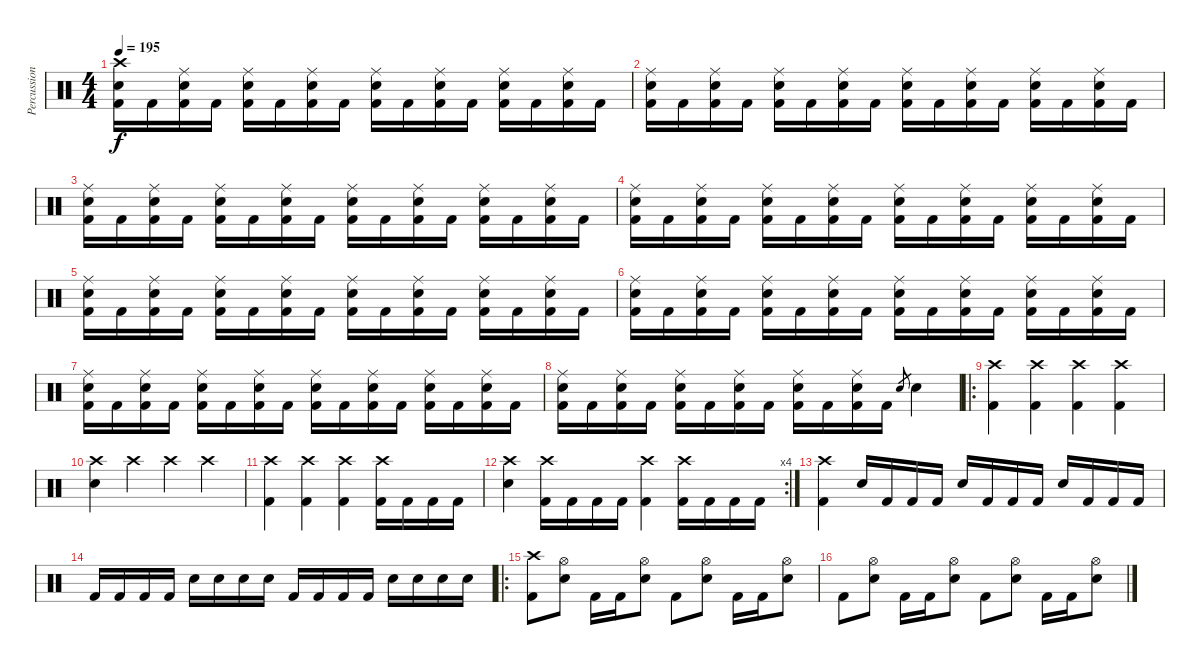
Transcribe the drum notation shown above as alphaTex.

\track ("Percussion" "Percussion") {instrument percussion}
\staff {score}
\articulation defaults
\ts (4 4)
\tempo 195
\clef neutral
\ks c
("Crash high (hit)" "Snare (hit) 2" "Kick (hit) 2").16{dy f} "Kick (hit) 2".16 ("Ride (middle)" "Snare (hit) 2" "Kick (hit) 2").16 "Kick (hit) 2".16 ("Ride (middle)" "Snare (hit) 2" "Kick (hit) 2").16 "Kick (hit) 2".16 ("Ride (middle)" "Snare (hit) 2" "Kick (hit) 2").16 "Kick (hit) 2".16 ("Ride (middle)" "Snare (hit) 2" "Kick (hit) 2").16 "Kick (hit) 2".16 ("Ride (middle)" "Snare (hit) 2" "Kick (hit) 2").16 "Kick (hit) 2".16 ("Ride (middle)" "Snare (hit) 2" "Kick (hit) 2").16 "Kick (hit) 2".16 ("Ride (middle)" "Snare (hit) 2" "Kick (hit) 2").16 "Kick (hit) 2".16 |
("Ride (middle)" "Snare (hit) 2" "Kick (hit) 2").16 "Kick (hit) 2".16 ("Ride (middle)" "Snare (hit) 2" "Kick (hit) 2").16 "Kick (hit) 2".16 ("Ride (middle)" "Snare (hit) 2" "Kick (hit) 2").16 "Kick (hit) 2".16 ("Ride (middle)" "Snare (hit) 2" "Kick (hit) 2").16 "Kick (hit) 2".16 ("Ride (middle)" "Snare (hit) 2" "Kick (hit) 2").16 "Kick (hit) 2".16 ("Ride (middle)" "Snare (hit) 2" "Kick (hit) 2").16 "Kick (hit) 2".16 ("Ride (middle)" "Snare (hit) 2" "Kick (hit) 2").16 "Kick (hit) 2".16 ("Ride (middle)" "Snare (hit) 2" "Kick (hit) 2").16 "Kick (hit) 2".16 |
("Ride (middle)" "Snare (hit) 2" "Kick (hit) 2").16 "Kick (hit) 2".16 ("Ride (middle)" "Snare (hit) 2" "Kick (hit) 2").16 "Kick (hit) 2".16 ("Ride (middle)" "Snare (hit) 2" "Kick (hit) 2").16 "Kick (hit) 2".16 ("Ride (middle)" "Snare (hit) 2" "Kick (hit) 2").16 "Kick (hit) 2".16 ("Ride (middle)" "Snare (hit) 2" "Kick (hit) 2").16 "Kick (hit) 2".16 ("Ride (middle)" "Snare (hit) 2" "Kick (hit) 2").16 "Kick (hit) 2".16 ("Ride (middle)" "Snare (hit) 2" "Kick (hit) 2").16 "Kick (hit) 2".16 ("Ride (middle)" "Snare (hit) 2" "Kick (hit) 2").16 "Kick (hit) 2".16 |
("Ride (middle)" "Snare (hit) 2" "Kick (hit) 2").16 "Kick (hit) 2".16 ("Ride (middle)" "Snare (hit) 2" "Kick (hit) 2").16 "Kick (hit) 2".16 ("Ride (middle)" "Snare (hit) 2" "Kick (hit) 2").16 "Kick (hit) 2".16 ("Ride (middle)" "Snare (hit) 2" "Kick (hit) 2").16 "Kick (hit) 2".16 ("Ride (middle)" "Snare (hit) 2" "Kick (hit) 2").16 "Kick (hit) 2".16 ("Ride (middle)" "Snare (hit) 2" "Kick (hit) 2").16 "Kick (hit) 2".16 ("Ride (middle)" "Snare (hit) 2" "Kick (hit) 2").16 "Kick (hit) 2".16 ("Ride (middle)" "Snare (hit) 2" "Kick (hit) 2").16 "Kick (hit) 2".16 |
("Ride (middle)" "Snare (hit) 2" "Kick (hit) 2").16 "Kick (hit) 2".16 ("Ride (middle)" "Snare (hit) 2" "Kick (hit) 2").16 "Kick (hit) 2".16 ("Ride (middle)" "Snare (hit) 2" "Kick (hit) 2").16 "Kick (hit) 2".16 ("Ride (middle)" "Snare (hit) 2" "Kick (hit) 2").16 "Kick (hit) 2".16 ("Ride (middle)" "Snare (hit) 2" "Kick (hit) 2").16 "Kick (hit) 2".16 ("Ride (middle)" "Snare (hit) 2" "Kick (hit) 2").16 "Kick (hit) 2".16 ("Ride (middle)" "Snare (hit) 2" "Kick (hit) 2").16 "Kick (hit) 2".16 ("Ride (middle)" "Snare (hit) 2" "Kick (hit) 2").16 "Kick (hit) 2".16 |
("Ride (middle)" "Snare (hit) 2" "Kick (hit) 2").16 "Kick (hit) 2".16 ("Ride (middle)" "Snare (hit) 2" "Kick (hit) 2").16 "Kick (hit) 2".16 ("Ride (middle)" "Snare (hit) 2" "Kick (hit) 2").16 "Kick (hit) 2".16 ("Ride (middle)" "Snare (hit) 2" "Kick (hit) 2").16 "Kick (hit) 2".16 ("Ride (middle)" "Snare (hit) 2" "Kick (hit) 2").16 "Kick (hit) 2".16 ("Ride (middle)" "Snare (hit) 2" "Kick (hit) 2").16 "Kick (hit) 2".16 ("Ride (middle)" "Snare (hit) 2" "Kick (hit) 2").16 "Kick (hit) 2".16 ("Ride (middle)" "Snare (hit) 2" "Kick (hit) 2").16 "Kick (hit) 2".16 |
("Ride (middle)" "Snare (hit) 2" "Kick (hit) 2").16 "Kick (hit) 2".16 ("Ride (middle)" "Snare (hit) 2" "Kick (hit) 2").16 "Kick (hit) 2".16 ("Ride (middle)" "Snare (hit) 2" "Kick (hit) 2").16 "Kick (hit) 2".16 ("Ride (middle)" "Snare (hit) 2" "Kick (hit) 2").16 "Kick (hit) 2".16 ("Ride (middle)" "Snare (hit) 2" "Kick (hit) 2").16 "Kick (hit) 2".16 ("Ride (middle)" "Snare (hit) 2" "Kick (hit) 2").16 "Kick (hit) 2".16 ("Ride (middle)" "Snare (hit) 2" "Kick (hit) 2").16 "Kick (hit) 2".16 ("Ride (middle)" "Snare (hit) 2" "Kick (hit) 2").16 "Kick (hit) 2".16 |
("Ride (middle)" "Snare (hit) 2" "Kick (hit) 2").16 "Kick (hit) 2".16 ("Ride (middle)" "Snare (hit) 2" "Kick (hit) 2").16 "Kick (hit) 2".16 ("Ride (middle)" "Snare (hit) 2" "Kick (hit) 2").16 "Kick (hit) 2".16 ("Ride (middle)" "Snare (hit) 2" "Kick (hit) 2").16 "Kick (hit) 2".16 ("Ride (middle)" "Snare (hit) 2" "Kick (hit) 2").16 "Kick (hit) 2".16 ("Ride (middle)" "Snare (hit) 2" "Kick (hit) 2").16 "Kick (hit) 2".16 "Snare (hit) 2".8{gr} "Snare (hit) 2".4 |
\ro
("Crash high (hit)" "Kick (hit) 2").4 ("Crash high (hit)" "Kick (hit) 2").4 ("Crash high (hit)" "Kick (hit) 2").4 ("Crash high (hit)" "Kick (hit) 2").4 |
("Crash high (hit)" "Snare (hit) 2").4 "Crash high (hit)".4 "Crash high (hit)".4 "Crash high (hit)".4 |
("Crash high (hit)" "Kick (hit) 2").4 ("Crash high (hit)" "Kick (hit) 2").4 ("Crash high (hit)" "Kick (hit) 2").4 ("Crash high (hit)" "Kick (hit) 2").16 "Kick (hit) 2".16 "Kick (hit) 2".16 "Kick (hit) 2".16 |
\rc 4
("Crash high (hit)" "Snare (hit) 2").4 ("Crash high (hit)" "Kick (hit) 2").16 "Kick (hit) 2".16 "Kick (hit) 2".16 "Kick (hit) 2".16 ("Crash high (hit)" "Kick (hit) 2").4 ("Crash high (hit)" "Kick (hit) 2").16 "Kick (hit) 2".16 "Kick (hit) 2".16 "Kick (hit) 2".16 |
("Crash high (hit)" "Kick (hit) 2").4 "Snare (hit) 2".16 "Kick (hit) 2".16 "Kick (hit) 2".16 "Kick (hit) 2".16 "Snare (hit) 2".16 "Kick (hit) 2".16 "Kick (hit) 2".16 "Kick (hit) 2".16 "Snare (hit) 2".16 "Kick (hit) 2".16 "Kick (hit) 2".16 "Kick (hit) 2".16 |
"Kick (hit) 2".16 "Kick (hit) 2".16 "Kick (hit) 2".16 "Kick (hit) 2".16 "Snare (hit) 2".16 "Snare (hit) 2".16 "Snare (hit) 2".16 "Snare (hit) 2".16 "Kick (hit) 2".16 "Kick (hit) 2".16 "Kick (hit) 2".16 "Kick (hit) 2".16 "Snare (hit) 2".16 "Snare (hit) 2".16 "Snare (hit) 2".16 "Snare (hit) 2".16 |
\ro
("Crash high (hit)" "Kick (hit) 2").8 ("Hi-Hat (open)" "Snare (hit) 2").8 "Kick (hit) 2".16 "Kick (hit) 2".16 ("Hi-Hat (open)" "Snare (hit) 2").8 "Kick (hit) 2".8 ("Hi-Hat (open)" "Snare (hit) 2").8 "Kick (hit) 2".16 "Kick (hit) 2".16 ("Hi-Hat (open)" "Snare (hit) 2").8 |
"Kick (hit) 2".8 ("Hi-Hat (open)" "Snare (hit) 2").8 "Kick (hit) 2".16 "Kick (hit) 2".16 ("Hi-Hat (open)" "Snare (hit) 2").8 "Kick (hit) 2".8 ("Hi-Hat (open)" "Snare (hit) 2").8 "Kick (hit) 2".16 "Kick (hit) 2".16 ("Hi-Hat (open)" "Snare (hit) 2").8
